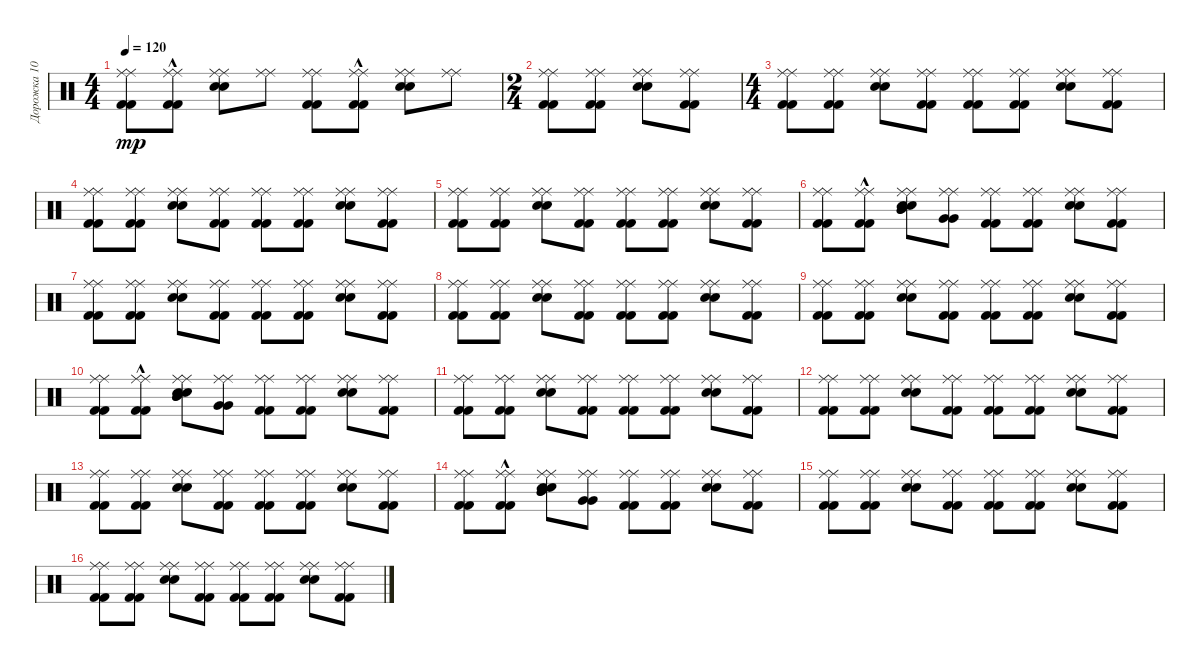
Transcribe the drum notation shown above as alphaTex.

\track ("Дорожка 10" "Дорожка 10") {instrument percussion}
\staff {score}
\articulation defaults
\ts (4 4)
\tempo 120
\clef neutral
\ks c
("Kick (hit) 2" "Ride (middle)" "Kick (hit) 2" "Ride (middle)").8{dy mp} ("Kick (hit) 2"{hac} "Ride (middle)" "Kick (hit) 2"{hac} "Ride (middle)").8 ("Snare (hit) 2" "Ride (middle)" "Snare (hit) 2" "Ride (middle)").8 ("Ride (middle)" "Ride (middle)").8 ("Kick (hit) 2" "Ride (middle)" "Kick (hit) 2" "Ride (middle)").8 ("Kick (hit) 2"{hac} "Ride (middle)" "Kick (hit) 2"{hac} "Ride (middle)").8 ("Snare (hit) 2" "Ride (middle)" "Snare (hit) 2" "Ride (middle)").8 ("Ride (middle)" "Ride (middle)").8 |
\ts (2 4)
("Kick (hit) 2" "Ride (middle)" "Kick (hit) 2" "Ride (middle)").8 ("Kick (hit) 2" "Ride (middle)" "Kick (hit) 2" "Ride (middle)").8 ("Snare (hit) 2" "Ride (middle)" "Snare (hit) 2" "Ride (middle)").8 ("Kick (hit) 2" "Ride (middle)" "Kick (hit) 2" "Ride (middle)").8 |
\ts (4 4)
("Kick (hit) 2" "Ride (middle)" "Kick (hit) 2" "Ride (middle)").8 ("Kick (hit) 2" "Ride (middle)" "Kick (hit) 2" "Ride (middle)").8 ("Snare (hit) 2" "Ride (middle)" "Snare (hit) 2" "Ride (middle)").8 ("Kick (hit) 2" "Ride (middle)" "Kick (hit) 2" "Ride (middle)").8 ("Kick (hit) 2" "Ride (middle)" "Kick (hit) 2" "Ride (middle)").8 ("Kick (hit) 2" "Ride (middle)" "Kick (hit) 2" "Ride (middle)").8 ("Snare (hit) 2" "Ride (middle)" "Snare (hit) 2" "Ride (middle)").8 ("Kick (hit) 2" "Ride (middle)" "Kick (hit) 2" "Ride (middle)").8 |
("Kick (hit) 2" "Ride (middle)" "Kick (hit) 2" "Ride (middle)").8 ("Kick (hit) 2" "Ride (middle)" "Kick (hit) 2" "Ride (middle)").8 ("Snare (hit) 2" "Ride (middle)" "Snare (hit) 2" "Ride (middle)").8 ("Kick (hit) 2" "Ride (middle)" "Kick (hit) 2" "Ride (middle)").8 ("Kick (hit) 2" "Ride (middle)" "Kick (hit) 2" "Ride (middle)").8 ("Kick (hit) 2" "Ride (middle)" "Kick (hit) 2" "Ride (middle)").8 ("Snare (hit) 2" "Ride (middle)" "Snare (hit) 2" "Ride (middle)").8 ("Kick (hit) 2" "Ride (middle)" "Kick (hit) 2" "Ride (middle)").8 |
("Kick (hit) 2" "Ride (middle)" "Kick (hit) 2" "Ride (middle)").8 ("Kick (hit) 2" "Ride (middle)" "Kick (hit) 2" "Ride (middle)").8 ("Snare (hit) 2" "Ride (middle)" "Snare (hit) 2" "Ride (middle)").8 ("Kick (hit) 2" "Ride (middle)" "Kick (hit) 2" "Ride (middle)").8 ("Kick (hit) 2" "Ride (middle)" "Kick (hit) 2" "Ride (middle)").8 ("Kick (hit) 2" "Ride (middle)" "Kick (hit) 2" "Ride (middle)").8 ("Snare (hit) 2" "Ride (middle)" "Snare (hit) 2" "Ride (middle)").8 ("Kick (hit) 2" "Ride (middle)" "Kick (hit) 2" "Ride (middle)").8 |
("Kick (hit) 2" "Ride (middle)" "Kick (hit) 2" "Ride (middle)").8 ("Kick (hit) 2"{hac} "Ride (middle)" "Kick (hit) 2"{hac} "Ride (middle)").8 ("Snare (hit) 2" "Mid Tom (hit)" "Ride (middle)" "Snare (hit) 2" "Mid Tom (hit)" "Ride (middle)").8 ("Very Low Tom (hit)" "Ride (middle)" "Very Low Tom (hit)" "Ride (middle)").8 ("Kick (hit) 2" "Ride (middle)" "Kick (hit) 2" "Ride (middle)").8 ("Kick (hit) 2" "Ride (middle)" "Kick (hit) 2" "Ride (middle)").8 ("Snare (hit) 2" "Ride (middle)" "Snare (hit) 2" "Ride (middle)").8 ("Kick (hit) 2" "Ride (middle)" "Kick (hit) 2" "Ride (middle)").8 |
("Kick (hit) 2" "Ride (middle)" "Kick (hit) 2" "Ride (middle)").8 ("Kick (hit) 2" "Ride (middle)" "Kick (hit) 2" "Ride (middle)").8 ("Snare (hit) 2" "Ride (middle)" "Snare (hit) 2" "Ride (middle)").8 ("Kick (hit) 2" "Ride (middle)" "Kick (hit) 2" "Ride (middle)").8 ("Kick (hit) 2" "Ride (middle)" "Kick (hit) 2" "Ride (middle)").8 ("Kick (hit) 2" "Ride (middle)" "Kick (hit) 2" "Ride (middle)").8 ("Snare (hit) 2" "Ride (middle)" "Snare (hit) 2" "Ride (middle)").8 ("Kick (hit) 2" "Ride (middle)" "Kick (hit) 2" "Ride (middle)").8 |
("Kick (hit) 2" "Ride (middle)" "Kick (hit) 2" "Ride (middle)").8 ("Kick (hit) 2" "Ride (middle)" "Kick (hit) 2" "Ride (middle)").8 ("Snare (hit) 2" "Ride (middle)" "Snare (hit) 2" "Ride (middle)").8 ("Kick (hit) 2" "Ride (middle)" "Kick (hit) 2" "Ride (middle)").8 ("Kick (hit) 2" "Ride (middle)" "Kick (hit) 2" "Ride (middle)").8 ("Kick (hit) 2" "Ride (middle)" "Kick (hit) 2" "Ride (middle)").8 ("Snare (hit) 2" "Ride (middle)" "Snare (hit) 2" "Ride (middle)").8 ("Kick (hit) 2" "Ride (middle)" "Kick (hit) 2" "Ride (middle)").8 |
("Kick (hit) 2" "Ride (middle)" "Kick (hit) 2" "Ride (middle)").8 ("Kick (hit) 2" "Ride (middle)" "Kick (hit) 2" "Ride (middle)").8 ("Snare (hit) 2" "Ride (middle)" "Snare (hit) 2" "Ride (middle)").8 ("Kick (hit) 2" "Ride (middle)" "Kick (hit) 2" "Ride (middle)").8 ("Kick (hit) 2" "Ride (middle)" "Kick (hit) 2" "Ride (middle)").8 ("Kick (hit) 2" "Ride (middle)" "Kick (hit) 2" "Ride (middle)").8 ("Snare (hit) 2" "Ride (middle)" "Snare (hit) 2" "Ride (middle)").8 ("Kick (hit) 2" "Ride (middle)" "Kick (hit) 2" "Ride (middle)").8 |
("Kick (hit) 2" "Ride (middle)" "Kick (hit) 2" "Ride (middle)").8 ("Kick (hit) 2"{hac} "Ride (middle)" "Kick (hit) 2"{hac} "Ride (middle)").8 ("Snare (hit) 2" "Mid Tom (hit)" "Ride (middle)" "Snare (hit) 2" "Mid Tom (hit)" "Ride (middle)").8 ("Very Low Tom (hit)" "Ride (middle)" "Very Low Tom (hit)" "Ride (middle)").8 ("Kick (hit) 2" "Ride (middle)" "Kick (hit) 2" "Ride (middle)").8 ("Kick (hit) 2" "Ride (middle)" "Kick (hit) 2" "Ride (middle)").8 ("Snare (hit) 2" "Ride (middle)" "Snare (hit) 2" "Ride (middle)").8 ("Kick (hit) 2" "Ride (middle)" "Kick (hit) 2" "Ride (middle)").8 |
("Kick (hit) 2" "Ride (middle)" "Kick (hit) 2" "Ride (middle)").8 ("Kick (hit) 2" "Ride (middle)" "Kick (hit) 2" "Ride (middle)").8 ("Snare (hit) 2" "Ride (middle)" "Snare (hit) 2" "Ride (middle)").8 ("Kick (hit) 2" "Ride (middle)" "Kick (hit) 2" "Ride (middle)").8 ("Kick (hit) 2" "Ride (middle)" "Kick (hit) 2" "Ride (middle)").8 ("Kick (hit) 2" "Ride (middle)" "Kick (hit) 2" "Ride (middle)").8 ("Snare (hit) 2" "Ride (middle)" "Snare (hit) 2" "Ride (middle)").8 ("Kick (hit) 2" "Ride (middle)" "Kick (hit) 2" "Ride (middle)").8 |
("Kick (hit) 2" "Ride (middle)" "Kick (hit) 2" "Ride (middle)").8 ("Kick (hit) 2" "Ride (middle)" "Kick (hit) 2" "Ride (middle)").8 ("Snare (hit) 2" "Ride (middle)" "Snare (hit) 2" "Ride (middle)").8 ("Kick (hit) 2" "Ride (middle)" "Kick (hit) 2" "Ride (middle)").8 ("Kick (hit) 2" "Ride (middle)" "Kick (hit) 2" "Ride (middle)").8 ("Kick (hit) 2" "Ride (middle)" "Kick (hit) 2" "Ride (middle)").8 ("Snare (hit) 2" "Ride (middle)" "Snare (hit) 2" "Ride (middle)").8 ("Kick (hit) 2" "Ride (middle)" "Kick (hit) 2" "Ride (middle)").8 |
("Kick (hit) 2" "Ride (middle)" "Kick (hit) 2" "Ride (middle)").8 ("Kick (hit) 2" "Ride (middle)" "Kick (hit) 2" "Ride (middle)").8 ("Snare (hit) 2" "Ride (middle)" "Snare (hit) 2" "Ride (middle)").8 ("Kick (hit) 2" "Ride (middle)" "Kick (hit) 2" "Ride (middle)").8 ("Kick (hit) 2" "Ride (middle)" "Kick (hit) 2" "Ride (middle)").8 ("Kick (hit) 2" "Ride (middle)" "Kick (hit) 2" "Ride (middle)").8 ("Snare (hit) 2" "Ride (middle)" "Snare (hit) 2" "Ride (middle)").8 ("Kick (hit) 2" "Ride (middle)" "Kick (hit) 2" "Ride (middle)").8 |
("Kick (hit) 2" "Ride (middle)" "Kick (hit) 2" "Ride (middle)").8 ("Kick (hit) 2"{hac} "Ride (middle)" "Kick (hit) 2"{hac} "Ride (middle)").8 ("Snare (hit) 2" "Mid Tom (hit)" "Ride (middle)" "Snare (hit) 2" "Mid Tom (hit)" "Ride (middle)").8 ("Very Low Tom (hit)" "Ride (middle)" "Very Low Tom (hit)" "Ride (middle)").8 ("Kick (hit) 2" "Ride (middle)" "Kick (hit) 2" "Ride (middle)").8 ("Kick (hit) 2" "Ride (middle)" "Kick (hit) 2" "Ride (middle)").8 ("Snare (hit) 2" "Ride (middle)" "Snare (hit) 2" "Ride (middle)").8 ("Kick (hit) 2" "Ride (middle)" "Kick (hit) 2" "Ride (middle)").8 |
("Kick (hit) 2" "Ride (middle)" "Kick (hit) 2" "Ride (middle)").8 ("Kick (hit) 2" "Ride (middle)" "Kick (hit) 2" "Ride (middle)").8 ("Snare (hit) 2" "Ride (middle)" "Snare (hit) 2" "Ride (middle)").8 ("Kick (hit) 2" "Ride (middle)" "Kick (hit) 2" "Ride (middle)").8 ("Kick (hit) 2" "Ride (middle)" "Kick (hit) 2" "Ride (middle)").8 ("Kick (hit) 2" "Ride (middle)" "Kick (hit) 2" "Ride (middle)").8 ("Snare (hit) 2" "Ride (middle)" "Snare (hit) 2" "Ride (middle)").8 ("Kick (hit) 2" "Ride (middle)" "Kick (hit) 2" "Ride (middle)").8 |
("Kick (hit) 2" "Ride (middle)" "Kick (hit) 2" "Ride (middle)").8 ("Kick (hit) 2" "Ride (middle)" "Kick (hit) 2" "Ride (middle)").8 ("Snare (hit) 2" "Ride (middle)" "Snare (hit) 2" "Ride (middle)").8 ("Kick (hit) 2" "Ride (middle)" "Kick (hit) 2" "Ride (middle)").8 ("Kick (hit) 2" "Ride (middle)" "Kick (hit) 2" "Ride (middle)").8 ("Kick (hit) 2" "Ride (middle)" "Kick (hit) 2" "Ride (middle)").8 ("Snare (hit) 2" "Ride (middle)" "Snare (hit) 2" "Ride (middle)").8 ("Kick (hit) 2" "Ride (middle)" "Kick (hit) 2" "Ride (middle)").8
